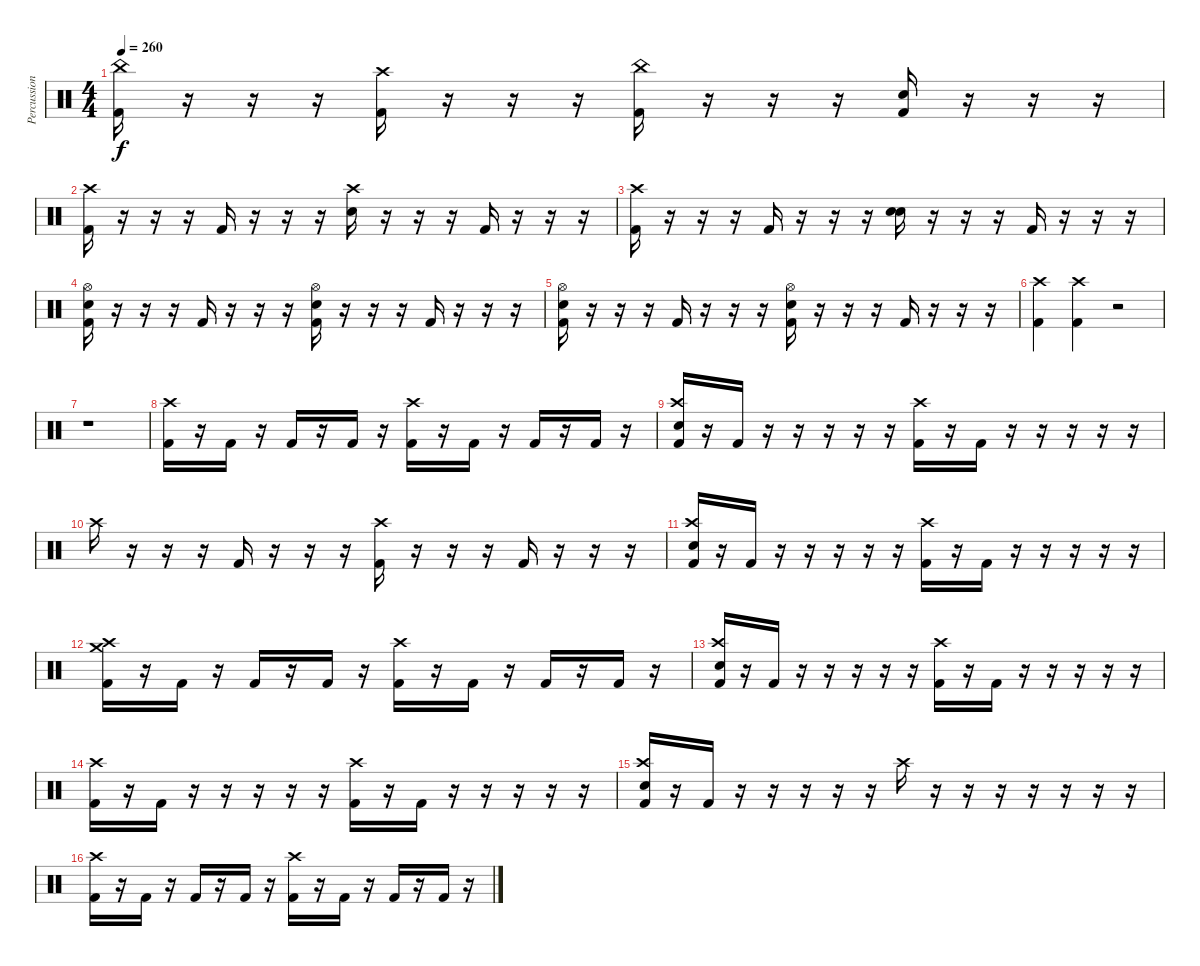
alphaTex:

\track ("Percussion" "Percussion") {instrument percussion}
\staff {score}
\articulation defaults
\ts (4 4)
\tempo 260
\clef neutral
\ks c
("Kick (hit) 2" "China (hit)").16{dy f} r.16 r.16 r.16 ("Kick (hit) 2" "Crash high (hit)").16 r.16 r.16 r.16 ("Kick (hit) 2" "China (hit)").16 r.16 r.16 r.16 ("Kick (hit) 2" "Snare (hit) 2").16 r.16 r.16 r.16 |
("Kick (hit) 2" "Crash high (hit)").16 r.16 r.16 r.16 "Kick (hit) 2".16 r.16 r.16 r.16 ("Snare (hit) 2" "Crash high (hit)").16 r.16 r.16 r.16 "Kick (hit) 2".16 r.16 r.16 r.16 |
("Kick (hit) 2" "Crash high (hit)").16 r.16 r.16 r.16 "Kick (hit) 2".16 r.16 r.16 r.16 ("Snare (hit) 2" "Hand Clap (hit)").16 r.16 r.16 r.16 "Kick (hit) 2".16 r.16 r.16 r.16 |
("Kick (hit) 2" "Snare (hit) 2" "Hi-Hat (open)").16 r.16 r.16 r.16 "Kick (hit) 2".16 r.16 r.16 r.16 ("Kick (hit) 2" "Snare (hit) 2" "Hi-Hat (open)").16 r.16 r.16 r.16 "Kick (hit) 2".16 r.16 r.16 r.16 |
("Kick (hit) 2" "Snare (hit) 2" "Hi-Hat (open)").16 r.16 r.16 r.16 "Kick (hit) 2".16 r.16 r.16 r.16 ("Kick (hit) 2" "Snare (hit) 2" "Hi-Hat (open)").16 r.16 r.16 r.16 "Kick (hit) 2".16 r.16 r.16 r.16 |
("Kick (hit) 2" "Crash high (hit)").4 ("Kick (hit) 2" "Crash high (hit)").4 r.2 |
r.1 |
("Kick (hit) 2" "Crash high (hit)").16 r.16 "Kick (hit) 2".16 r.16 "Kick (hit) 2".16 r.16 "Kick (hit) 2".16 r.16 ("Kick (hit) 2" "Crash high (hit)").16 r.16 "Kick (hit) 2".16 r.16 "Kick (hit) 2".16 r.16 "Kick (hit) 2".16 r.16 |
("Kick (hit) 2" "Electric Snare (hit)" "Crash high (hit)").16 r.16 "Kick (hit) 2".16 r.16 r.16 r.16 r.16 r.16 ("Kick (hit) 2" "Crash high (hit)").16 r.16 "Kick (hit) 2".16 r.16 r.16 r.16 r.16 r.16 |
"Crash high (hit)".16 r.16 r.16 r.16 "Kick (hit) 2".16 r.16 r.16 r.16 ("Kick (hit) 2" "Crash high (hit)").16 r.16 r.16 r.16 "Kick (hit) 2".16 r.16 r.16 r.16 |
("Kick (hit) 2" "Snare (hit) 2" "Crash high (hit)").16 r.16 "Kick (hit) 2".16 r.16 r.16 r.16 r.16 r.16 ("Kick (hit) 2" "Crash high (hit)").16 r.16 "Kick (hit) 2".16 r.16 r.16 r.16 r.16 r.16 |
("Kick (hit) 2" "Crash medium (hit)" "Crash high (hit)").16 r.16 "Kick (hit) 2".16 r.16 "Kick (hit) 2".16 r.16 "Kick (hit) 2".16 r.16 ("Kick (hit) 2" "Crash high (hit)").16 r.16 "Kick (hit) 2".16 r.16 "Kick (hit) 2".16 r.16 "Kick (hit) 2".16 r.16 |
("Kick (hit) 2" "Snare (hit) 2" "Crash high (hit)").16 r.16 "Kick (hit) 2".16 r.16 r.16 r.16 r.16 r.16 ("Kick (hit) 2" "Crash high (hit)").16 r.16 "Kick (hit) 2".16 r.16 r.16 r.16 r.16 r.16 |
("Kick (hit) 2" "Crash high (hit)").16 r.16 "Kick (hit) 2".16 r.16 r.16 r.16 r.16 r.16 ("Kick (hit) 2" "Crash high (hit)").16 r.16 "Kick (hit) 2".16 r.16 r.16 r.16 r.16 r.16 |
("Kick (hit) 2" "Snare (hit) 2" "Crash high (hit)").16 r.16 "Kick (hit) 2".16 r.16 r.16 r.16 r.16 r.16 "Crash high (hit)".16 r.16 r.16 r.16 r.16 r.16 r.16 r.16 |
("Kick (hit) 2" "Crash high (hit)").16 r.16 "Kick (hit) 2".16 r.16 "Kick (hit) 2".16 r.16 "Kick (hit) 2".16 r.16 ("Kick (hit) 2" "Crash high (hit)").16 r.16 "Kick (hit) 2".16 r.16 "Kick (hit) 2".16 r.16 "Kick (hit) 2".16 r.16
